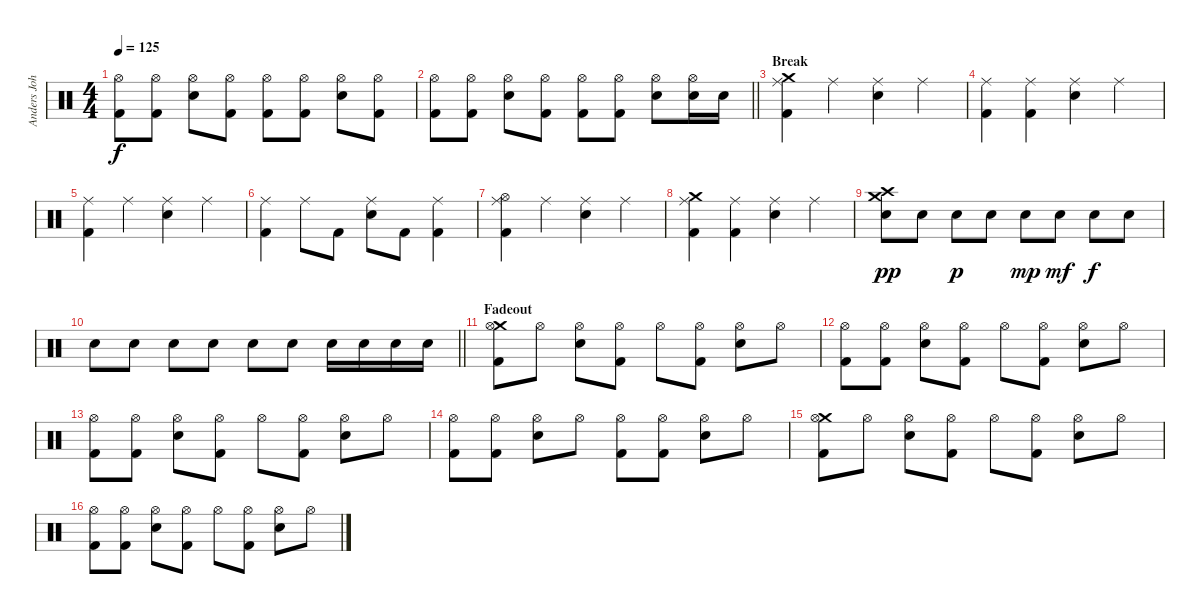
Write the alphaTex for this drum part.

\track ("Anders Johansson" "Anders Joh") {instrument percussion}
\staff {score}
\articulation defaults
\ts (4 4)
\tempo 125
\clef neutral
\ks c
("Hi-Hat (open)" "Kick (hit) 2").8{dy f} ("Hi-Hat (open)" "Kick (hit) 2").8 ("Hi-Hat (open)" "Snare (hit) 2").8 ("Hi-Hat (open)" "Kick (hit) 2").8 ("Hi-Hat (open)" "Kick (hit) 2").8 ("Hi-Hat (open)" "Kick (hit) 2").8 ("Hi-Hat (open)" "Snare (hit) 2").8 ("Hi-Hat (open)" "Kick (hit) 2").8 |
\barLineRight lightlight
("Hi-Hat (open)" "Kick (hit) 2").8 ("Hi-Hat (open)" "Kick (hit) 2").8 ("Hi-Hat (open)" "Snare (hit) 2").8 ("Hi-Hat (open)" "Kick (hit) 2").8 ("Hi-Hat (open)" "Kick (hit) 2").8 ("Hi-Hat (open)" "Kick (hit) 2").8 ("Hi-Hat (open)" "Snare (hit) 2").8 ("Hi-Hat (open)" "Snare (hit) 2").16 "Snare (hit) 2".16 |
\section ("" "Break")
("Crash medium (hit)" "Ride (middle)" "Kick (hit) 2").4 "Ride (middle)".4 ("Ride (middle)" "Snare (hit) 2").4 "Ride (middle)".4 |
("Ride (middle)" "Kick (hit) 2").4 ("Ride (middle)" "Kick (hit) 2").4 ("Ride (middle)" "Snare (hit) 2").4 "Ride (middle)".4 |
("Ride (middle)" "Kick (hit) 2").4 "Ride (middle)".4 ("Ride (middle)" "Snare (hit) 2").4 "Ride (middle)".4 |
("Ride (middle)" "Kick (hit) 2").4 "Ride (middle)".8 "Kick (hit) 2".8 ("Ride (middle)" "Snare (hit) 2").8 "Kick (hit) 2".8 ("Ride (middle)" "Kick (hit) 2").4 |
("Hi-Hat (open)" "Ride (middle)" "Kick (hit) 2").4 "Ride (middle)".4 ("Ride (middle)" "Snare (hit) 2").4 "Ride (middle)".4 |
("Crash medium (hit)" "Ride (middle)" "Kick (hit) 2").4 ("Ride (middle)" "Kick (hit) 2").4 ("Ride (middle)" "Snare (hit) 2").4 "Ride (middle)".4 |
("Crash medium (hit)" "Crash high (hit)" "Snare (hit) 2").8{dy pp} "Snare (hit) 2".8 "Snare (hit) 2".8{dy p} "Snare (hit) 2".8 "Snare (hit) 2".8{dy mp} "Snare (hit) 2".8{dy mf} "Snare (hit) 2".8{dy f} "Snare (hit) 2".8 |
\barLineRight lightlight "Snare (hit) 2".8 "Snare (hit) 2".8 "Snare (hit) 2".8 "Snare (hit) 2".8 "Snare (hit) 2".8 "Snare (hit) 2".8 "Snare (hit) 2".16 "Snare (hit) 2".16 "Snare (hit) 2".16 "Snare (hit) 2".16
|
\section ("" "Fadeout")
("Crash medium (hit)" "Hi-Hat (open)" "Kick (hit) 2").8 "Hi-Hat (open)".8 ("Hi-Hat (open)" "Snare (hit) 2").8 ("Hi-Hat (open)" "Kick (hit) 2").8 "Hi-Hat (open)".8 ("Hi-Hat (open)" "Kick (hit) 2").8 ("Hi-Hat (open)" "Snare (hit) 2").8 "Hi-Hat (open)".8 |
("Hi-Hat (open)" "Kick (hit) 2").8 ("Hi-Hat (open)" "Kick (hit) 2").8 ("Hi-Hat (open)" "Snare (hit) 2").8 ("Hi-Hat (open)" "Kick (hit) 2").8 "Hi-Hat (open)".8 ("Hi-Hat (open)" "Kick (hit) 2").8 ("Hi-Hat (open)" "Snare (hit) 2").8 "Hi-Hat (open)".8 |
("Hi-Hat (open)" "Kick (hit) 2").8 ("Hi-Hat (open)" "Kick (hit) 2").8 ("Hi-Hat (open)" "Snare (hit) 2").8 ("Hi-Hat (open)" "Kick (hit) 2").8 "Hi-Hat (open)".8 ("Hi-Hat (open)" "Kick (hit) 2").8 ("Hi-Hat (open)" "Snare (hit) 2").8 "Hi-Hat (open)".8 |
("Hi-Hat (open)" "Kick (hit) 2").8 ("Hi-Hat (open)" "Kick (hit) 2").8 ("Hi-Hat (open)" "Snare (hit) 2").8 "Hi-Hat (open)".8 ("Hi-Hat (open)" "Kick (hit) 2").8 ("Hi-Hat (open)" "Kick (hit) 2").8 ("Hi-Hat (open)" "Snare (hit) 2").8 "Hi-Hat (open)".8 |
("Crash medium (hit)" "Hi-Hat (open)" "Kick (hit) 2").8 "Hi-Hat (open)".8 ("Hi-Hat (open)" "Snare (hit) 2").8 ("Hi-Hat (open)" "Kick (hit) 2").8 "Hi-Hat (open)".8 ("Hi-Hat (open)" "Kick (hit) 2").8 ("Hi-Hat (open)" "Snare (hit) 2").8 "Hi-Hat (open)".8 |
("Hi-Hat (open)" "Kick (hit) 2").8 ("Hi-Hat (open)" "Kick (hit) 2").8 ("Hi-Hat (open)" "Snare (hit) 2").8 ("Hi-Hat (open)" "Kick (hit) 2").8 "Hi-Hat (open)".8 ("Hi-Hat (open)" "Kick (hit) 2").8 ("Hi-Hat (open)" "Snare (hit) 2").8 "Hi-Hat (open)".8
